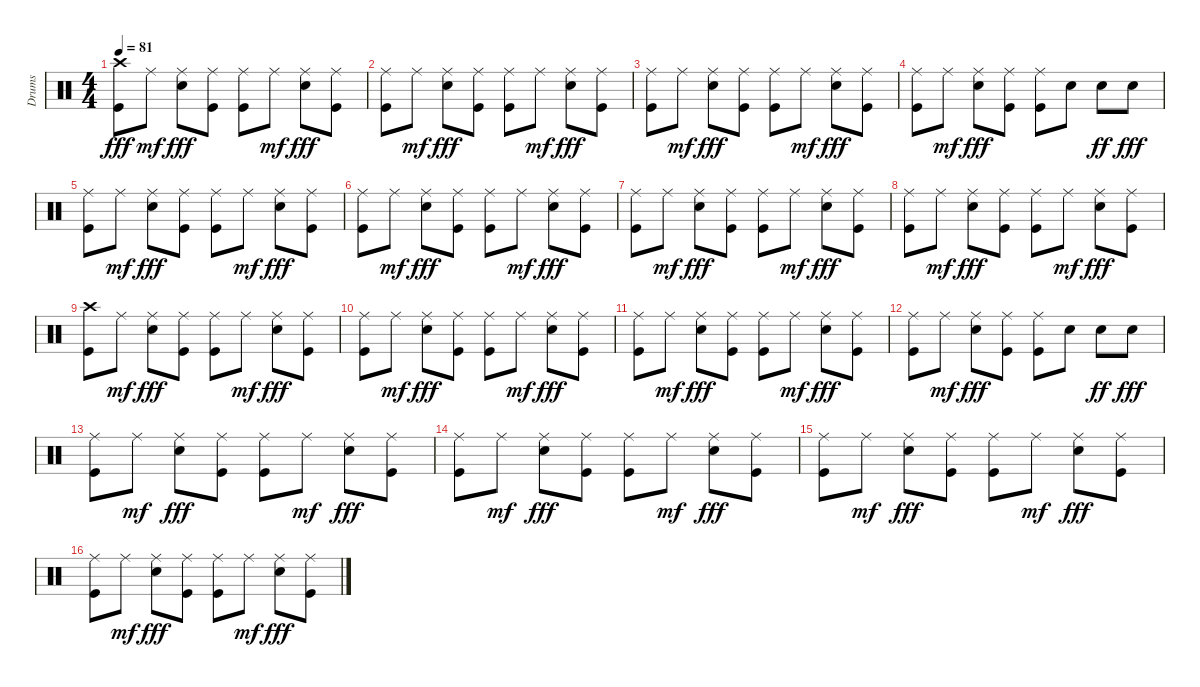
\track ("Drums" "Drums") {instrument percussion}
\staff {score}
\articulation defaults
\ts (4 4)
\tempo 81
\clef neutral
\ks c
("Crash high (hit)" "Kick (hit)").8{dy fff} "Ride (middle)".8{dy mf} ("Ride (middle)" "Snare (hit) 2").8{dy fff} ("Ride (middle)" "Kick (hit)").8 ("Ride (middle)" "Kick (hit)").8 "Ride (middle)".8{dy mf} ("Ride (middle)" "Snare (hit) 2").8{dy fff} ("Ride (middle)" "Kick (hit)").8 |
("Ride (middle)" "Kick (hit)").8 "Ride (middle)".8{dy mf} ("Ride (middle)" "Snare (hit) 2").8{dy fff} ("Ride (middle)" "Kick (hit)").8 ("Ride (middle)" "Kick (hit)").8 "Ride (middle)".8{dy mf} ("Ride (middle)" "Snare (hit) 2").8{dy fff} ("Ride (middle)" "Kick (hit)").8 |
("Ride (middle)" "Kick (hit)").8 "Ride (middle)".8{dy mf} ("Ride (middle)" "Snare (hit) 2").8{dy fff} ("Ride (middle)" "Kick (hit)").8 ("Ride (middle)" "Kick (hit)").8 "Ride (middle)".8{dy mf} ("Ride (middle)" "Snare (hit) 2").8{dy fff} ("Ride (middle)" "Kick (hit)").8 |
("Ride (middle)" "Kick (hit)").8 "Ride (middle)".8{dy mf} ("Ride (middle)" "Snare (hit) 2").8{dy fff} ("Ride (middle)" "Kick (hit)").8 ("Ride (middle)" "Kick (hit)").8 "Snare (hit) 2".8 "Snare (hit) 2".8{dy ff} "Snare (hit) 2".8{dy fff} |
("Ride (middle)" "Kick (hit)").8 "Ride (middle)".8{dy mf} ("Ride (middle)" "Snare (hit) 2").8{dy fff} ("Ride (middle)" "Kick (hit)").8 ("Ride (middle)" "Kick (hit)").8 "Ride (middle)".8{dy mf} ("Ride (middle)" "Snare (hit) 2").8{dy fff} ("Ride (middle)" "Kick (hit)").8 |
("Ride (middle)" "Kick (hit)").8 "Ride (middle)".8{dy mf} ("Ride (middle)" "Snare (hit) 2").8{dy fff} ("Ride (middle)" "Kick (hit)").8 ("Ride (middle)" "Kick (hit)").8 "Ride (middle)".8{dy mf} ("Ride (middle)" "Snare (hit) 2").8{dy fff} ("Ride (middle)" "Kick (hit)").8 |
("Ride (middle)" "Kick (hit)").8 "Ride (middle)".8{dy mf} ("Ride (middle)" "Snare (hit) 2").8{dy fff} ("Ride (middle)" "Kick (hit)").8 ("Ride (middle)" "Kick (hit)").8 "Ride (middle)".8{dy mf} ("Ride (middle)" "Snare (hit) 2").8{dy fff} ("Ride (middle)" "Kick (hit)").8 |
("Ride (middle)" "Kick (hit)").8 "Ride (middle)".8{dy mf} ("Ride (middle)" "Snare (hit) 2").8{dy fff} ("Ride (middle)" "Kick (hit)").8 ("Ride (middle)" "Kick (hit)").8 "Ride (middle)".8{dy mf} ("Ride (middle)" "Snare (hit) 2").8{dy fff} ("Ride (middle)" "Kick (hit)").8 |
("Crash high (hit)" "Kick (hit)").8 "Ride (middle)".8{dy mf} ("Ride (middle)" "Snare (hit) 2").8{dy fff} ("Ride (middle)" "Kick (hit)").8 ("Ride (middle)" "Kick (hit)").8 "Ride (middle)".8{dy mf} ("Ride (middle)" "Snare (hit) 2").8{dy fff} ("Ride (middle)" "Kick (hit)").8 |
("Ride (middle)" "Kick (hit)").8 "Ride (middle)".8{dy mf} ("Ride (middle)" "Snare (hit) 2").8{dy fff} ("Ride (middle)" "Kick (hit)").8 ("Ride (middle)" "Kick (hit)").8 "Ride (middle)".8{dy mf} ("Ride (middle)" "Snare (hit) 2").8{dy fff} ("Ride (middle)" "Kick (hit)").8 |
("Ride (middle)" "Kick (hit)").8 "Ride (middle)".8{dy mf} ("Ride (middle)" "Snare (hit) 2").8{dy fff} ("Ride (middle)" "Kick (hit)").8 ("Ride (middle)" "Kick (hit)").8 "Ride (middle)".8{dy mf} ("Ride (middle)" "Snare (hit) 2").8{dy fff} ("Ride (middle)" "Kick (hit)").8 |
("Ride (middle)" "Kick (hit)").8 "Ride (middle)".8{dy mf} ("Ride (middle)" "Snare (hit) 2").8{dy fff} ("Ride (middle)" "Kick (hit)").8 ("Ride (middle)" "Kick (hit)").8 "Snare (hit) 2".8 "Snare (hit) 2".8{dy ff} "Snare (hit) 2".8{dy fff} |
("Ride (middle)" "Kick (hit)").8 "Ride (middle)".8{dy mf} ("Ride (middle)" "Snare (hit) 2").8{dy fff} ("Ride (middle)" "Kick (hit)").8 ("Ride (middle)" "Kick (hit)").8 "Ride (middle)".8{dy mf} ("Ride (middle)" "Snare (hit) 2").8{dy fff} ("Ride (middle)" "Kick (hit)").8 |
("Ride (middle)" "Kick (hit)").8 "Ride (middle)".8{dy mf} ("Ride (middle)" "Snare (hit) 2").8{dy fff} ("Ride (middle)" "Kick (hit)").8 ("Ride (middle)" "Kick (hit)").8 "Ride (middle)".8{dy mf} ("Ride (middle)" "Snare (hit) 2").8{dy fff} ("Ride (middle)" "Kick (hit)").8 |
("Ride (middle)" "Kick (hit)").8 "Ride (middle)".8{dy mf} ("Ride (middle)" "Snare (hit) 2").8{dy fff} ("Ride (middle)" "Kick (hit)").8 ("Ride (middle)" "Kick (hit)").8 "Ride (middle)".8{dy mf} ("Ride (middle)" "Snare (hit) 2").8{dy fff} ("Ride (middle)" "Kick (hit)").8 |
("Ride (middle)" "Kick (hit)").8 "Ride (middle)".8{dy mf} ("Ride (middle)" "Snare (hit) 2").8{dy fff} ("Ride (middle)" "Kick (hit)").8 ("Ride (middle)" "Kick (hit)").8 "Ride (middle)".8{dy mf} ("Ride (middle)" "Snare (hit) 2").8{dy fff} ("Ride (middle)" "Kick (hit)").8
